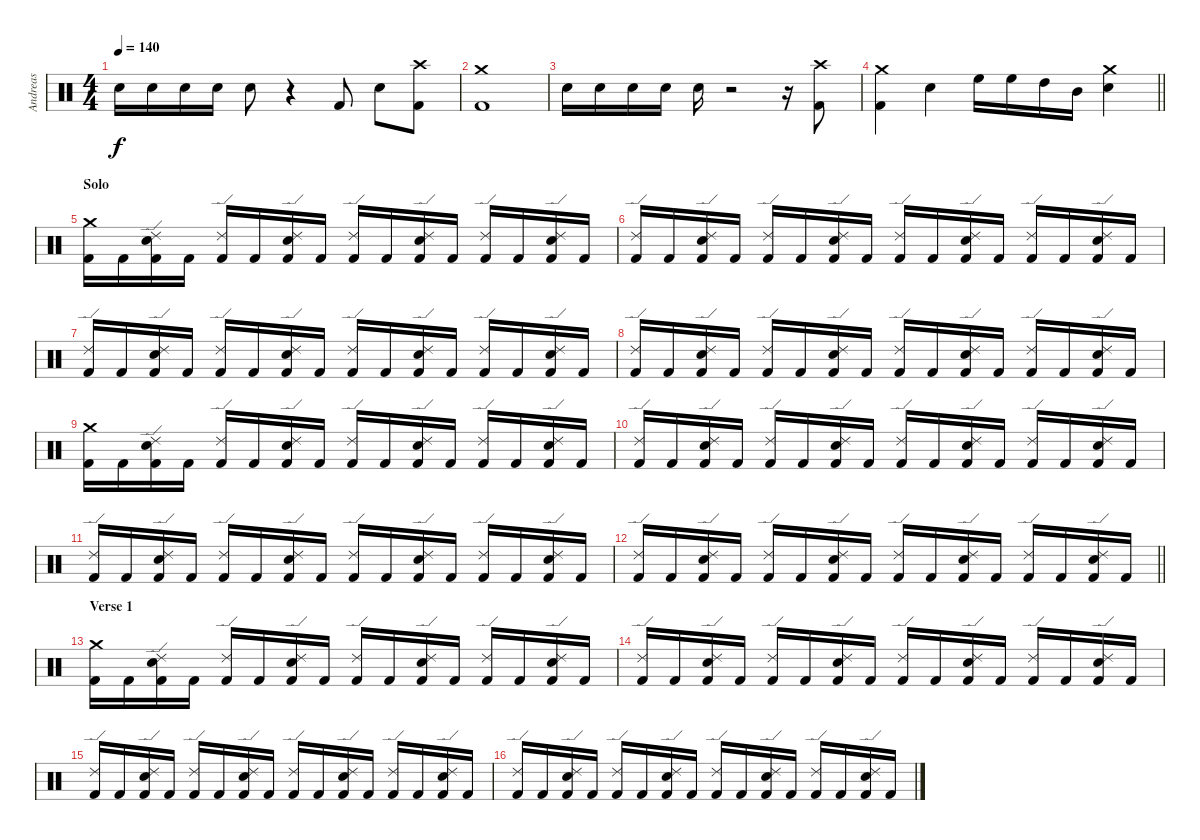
\track ("Andreas" "Andreas") {instrument percussion}
\staff {score}
\articulation defaults
\ts (4 4)
\section ("" "")
\tempo 140
\clef neutral
\ks c "Electric Snare (hit)".16{dy f} "Electric Snare (hit)".16 "Electric Snare (hit)".16 "Electric Snare (hit)".16 "Electric Snare (hit)".8
r.4 "Kick (hit) 2".8 "Electric Snare (hit)".8 ("Crash high (hit)" "Kick (hit) 2").8 |
("Crash medium (hit)" "Kick (hit) 2").1 |
"Electric Snare (hit)".16 "Electric Snare (hit)".16 "Electric Snare (hit)".16 "Electric Snare (hit)".16 "Electric Snare (hit)".16 r.2 r.16 ("Crash high (hit)" "Kick (hit) 2").8 |
\barLineRight lightlight
("Crash medium (hit)" "Kick (hit) 2").4 "Electric Snare (hit)".4 "High Floor Tom (hit)".16 "High Floor Tom (hit)".16 "High Tom (hit)".16 "Mid Tom (hit)".16 ("Crash medium (hit)" "Electric Snare (hit)").4 |
\section ("" "Solo")
("Crash medium (hit)" "Kick (hit) 2").16 "Kick (hit) 2".16 ("Ride (edge) 2" "Electric Snare (hit)" "Kick (hit) 2").16 "Kick (hit) 2".16 ("Ride (edge) 2" "Kick (hit) 2").16 "Kick (hit) 2".16 ("Ride (edge) 2" "Electric Snare (hit)" "Kick (hit) 2").16 "Kick (hit) 2".16 ("Ride (edge) 2" "Kick (hit) 2").16 "Kick (hit) 2".16 ("Ride (edge) 2" "Electric Snare (hit)" "Kick (hit) 2").16 "Kick (hit) 2".16 ("Ride (edge) 2" "Kick (hit) 2").16 "Kick (hit) 2".16 ("Ride (edge) 2" "Electric Snare (hit)" "Kick (hit) 2").16 "Kick (hit) 2".16 |
("Ride (edge) 2" "Kick (hit) 2").16 "Kick (hit) 2".16 ("Ride (edge) 2" "Electric Snare (hit)" "Kick (hit) 2").16 "Kick (hit) 2".16 ("Ride (edge) 2" "Kick (hit) 2").16 "Kick (hit) 2".16 ("Ride (edge) 2" "Electric Snare (hit)" "Kick (hit) 2").16 "Kick (hit) 2".16 ("Ride (edge) 2" "Kick (hit) 2").16 "Kick (hit) 2".16 ("Ride (edge) 2" "Electric Snare (hit)" "Kick (hit) 2").16 "Kick (hit) 2".16 ("Ride (edge) 2" "Kick (hit) 2").16 "Kick (hit) 2".16 ("Ride (edge) 2" "Electric Snare (hit)" "Kick (hit) 2").16 "Kick (hit) 2".16 |
("Ride (edge) 2" "Kick (hit) 2").16 "Kick (hit) 2".16 ("Ride (edge) 2" "Electric Snare (hit)" "Kick (hit) 2").16 "Kick (hit) 2".16 ("Ride (edge) 2" "Kick (hit) 2").16 "Kick (hit) 2".16 ("Ride (edge) 2" "Electric Snare (hit)" "Kick (hit) 2").16 "Kick (hit) 2".16 ("Ride (edge) 2" "Kick (hit) 2").16 "Kick (hit) 2".16 ("Ride (edge) 2" "Electric Snare (hit)" "Kick (hit) 2").16 "Kick (hit) 2".16 ("Ride (edge) 2" "Kick (hit) 2").16 "Kick (hit) 2".16 ("Ride (edge) 2" "Electric Snare (hit)" "Kick (hit) 2").16 "Kick (hit) 2".16 |
("Ride (edge) 2" "Kick (hit) 2").16 "Kick (hit) 2".16 ("Ride (edge) 2" "Electric Snare (hit)" "Kick (hit) 2").16 "Kick (hit) 2".16 ("Ride (edge) 2" "Kick (hit) 2").16 "Kick (hit) 2".16 ("Ride (edge) 2" "Electric Snare (hit)" "Kick (hit) 2").16 "Kick (hit) 2".16 ("Ride (edge) 2" "Kick (hit) 2").16 "Kick (hit) 2".16 ("Ride (edge) 2" "Electric Snare (hit)" "Kick (hit) 2").16 "Kick (hit) 2".16 ("Ride (edge) 2" "Kick (hit) 2").16 "Kick (hit) 2".16 ("Ride (edge) 2" "Electric Snare (hit)" "Kick (hit) 2").16 "Kick (hit) 2".16 |
("Crash medium (hit)" "Kick (hit) 2").16 "Kick (hit) 2".16 ("Ride (edge) 2" "Electric Snare (hit)" "Kick (hit) 2").16 "Kick (hit) 2".16 ("Ride (edge) 2" "Kick (hit) 2").16 "Kick (hit) 2".16 ("Ride (edge) 2" "Electric Snare (hit)" "Kick (hit) 2").16 "Kick (hit) 2".16 ("Ride (edge) 2" "Kick (hit) 2").16 "Kick (hit) 2".16 ("Ride (edge) 2" "Electric Snare (hit)" "Kick (hit) 2").16 "Kick (hit) 2".16 ("Ride (edge) 2" "Kick (hit) 2").16 "Kick (hit) 2".16 ("Ride (edge) 2" "Electric Snare (hit)" "Kick (hit) 2").16 "Kick (hit) 2".16 |
("Ride (edge) 2" "Kick (hit) 2").16 "Kick (hit) 2".16 ("Ride (edge) 2" "Electric Snare (hit)" "Kick (hit) 2").16 "Kick (hit) 2".16 ("Ride (edge) 2" "Kick (hit) 2").16 "Kick (hit) 2".16 ("Ride (edge) 2" "Electric Snare (hit)" "Kick (hit) 2").16 "Kick (hit) 2".16 ("Ride (edge) 2" "Kick (hit) 2").16 "Kick (hit) 2".16 ("Ride (edge) 2" "Electric Snare (hit)" "Kick (hit) 2").16 "Kick (hit) 2".16 ("Ride (edge) 2" "Kick (hit) 2").16 "Kick (hit) 2".16 ("Ride (edge) 2" "Electric Snare (hit)" "Kick (hit) 2").16 "Kick (hit) 2".16 |
("Ride (edge) 2" "Kick (hit) 2").16 "Kick (hit) 2".16 ("Ride (edge) 2" "Electric Snare (hit)" "Kick (hit) 2").16 "Kick (hit) 2".16 ("Ride (edge) 2" "Kick (hit) 2").16 "Kick (hit) 2".16 ("Ride (edge) 2" "Electric Snare (hit)" "Kick (hit) 2").16 "Kick (hit) 2".16 ("Ride (edge) 2" "Kick (hit) 2").16 "Kick (hit) 2".16 ("Ride (edge) 2" "Electric Snare (hit)" "Kick (hit) 2").16 "Kick (hit) 2".16 ("Ride (edge) 2" "Kick (hit) 2").16 "Kick (hit) 2".16 ("Ride (edge) 2" "Electric Snare (hit)" "Kick (hit) 2").16 "Kick (hit) 2".16 |
\barLineRight lightlight
("Ride (edge) 2" "Kick (hit) 2").16 "Kick (hit) 2".16 ("Ride (edge) 2" "Electric Snare (hit)" "Kick (hit) 2").16 "Kick (hit) 2".16 ("Ride (edge) 2" "Kick (hit) 2").16 "Kick (hit) 2".16 ("Ride (edge) 2" "Electric Snare (hit)" "Kick (hit) 2").16 "Kick (hit) 2".16 ("Ride (edge) 2" "Kick (hit) 2").16 "Kick (hit) 2".16 ("Ride (edge) 2" "Electric Snare (hit)" "Kick (hit) 2").16 "Kick (hit) 2".16 ("Ride (edge) 2" "Kick (hit) 2").16 "Kick (hit) 2".16 ("Ride (edge) 2" "Electric Snare (hit)" "Kick (hit) 2").16 "Kick (hit) 2".16 |
\section ("" "Verse 1")
("Crash medium (hit)" "Kick (hit) 2").16 "Kick (hit) 2".16 ("Ride (edge) 2" "Electric Snare (hit)" "Kick (hit) 2").16 "Kick (hit) 2".16 ("Ride (edge) 2" "Kick (hit) 2").16 "Kick (hit) 2".16 ("Ride (edge) 2" "Electric Snare (hit)" "Kick (hit) 2").16 "Kick (hit) 2".16 ("Ride (edge) 2" "Kick (hit) 2").16 "Kick (hit) 2".16 ("Ride (edge) 2" "Electric Snare (hit)" "Kick (hit) 2").16 "Kick (hit) 2".16 ("Ride (edge) 2" "Kick (hit) 2").16 "Kick (hit) 2".16 ("Ride (edge) 2" "Electric Snare (hit)" "Kick (hit) 2").16 "Kick (hit) 2".16 |
("Ride (edge) 2" "Kick (hit) 2").16 "Kick (hit) 2".16 ("Ride (edge) 2" "Electric Snare (hit)" "Kick (hit) 2").16 "Kick (hit) 2".16 ("Ride (edge) 2" "Kick (hit) 2").16 "Kick (hit) 2".16 ("Ride (edge) 2" "Electric Snare (hit)" "Kick (hit) 2").16 "Kick (hit) 2".16 ("Ride (edge) 2" "Kick (hit) 2").16 "Kick (hit) 2".16 ("Ride (edge) 2" "Electric Snare (hit)" "Kick (hit) 2").16 "Kick (hit) 2".16 ("Ride (edge) 2" "Kick (hit) 2").16 "Kick (hit) 2".16 ("Ride (edge) 2" "Electric Snare (hit)" "Kick (hit) 2").16 "Kick (hit) 2".16 |
("Ride (edge) 2" "Kick (hit) 2").16 "Kick (hit) 2".16 ("Ride (edge) 2" "Electric Snare (hit)" "Kick (hit) 2").16 "Kick (hit) 2".16 ("Ride (edge) 2" "Kick (hit) 2").16 "Kick (hit) 2".16 ("Ride (edge) 2" "Electric Snare (hit)" "Kick (hit) 2").16 "Kick (hit) 2".16 ("Ride (edge) 2" "Kick (hit) 2").16 "Kick (hit) 2".16 ("Ride (edge) 2" "Electric Snare (hit)" "Kick (hit) 2").16 "Kick (hit) 2".16 ("Ride (edge) 2" "Kick (hit) 2").16 "Kick (hit) 2".16 ("Ride (edge) 2" "Electric Snare (hit)" "Kick (hit) 2").16 "Kick (hit) 2".16 |
("Ride (edge) 2" "Kick (hit) 2").16 "Kick (hit) 2".16 ("Ride (edge) 2" "Electric Snare (hit)" "Kick (hit) 2").16 "Kick (hit) 2".16 ("Ride (edge) 2" "Kick (hit) 2").16 "Kick (hit) 2".16 ("Ride (edge) 2" "Electric Snare (hit)" "Kick (hit) 2").16 "Kick (hit) 2".16 ("Ride (edge) 2" "Kick (hit) 2").16 "Kick (hit) 2".16 ("Ride (edge) 2" "Electric Snare (hit)" "Kick (hit) 2").16 "Kick (hit) 2".16 ("Ride (edge) 2" "Kick (hit) 2").16 "Kick (hit) 2".16 ("Ride (edge) 2" "Electric Snare (hit)" "Kick (hit) 2").16 "Kick (hit) 2".16
